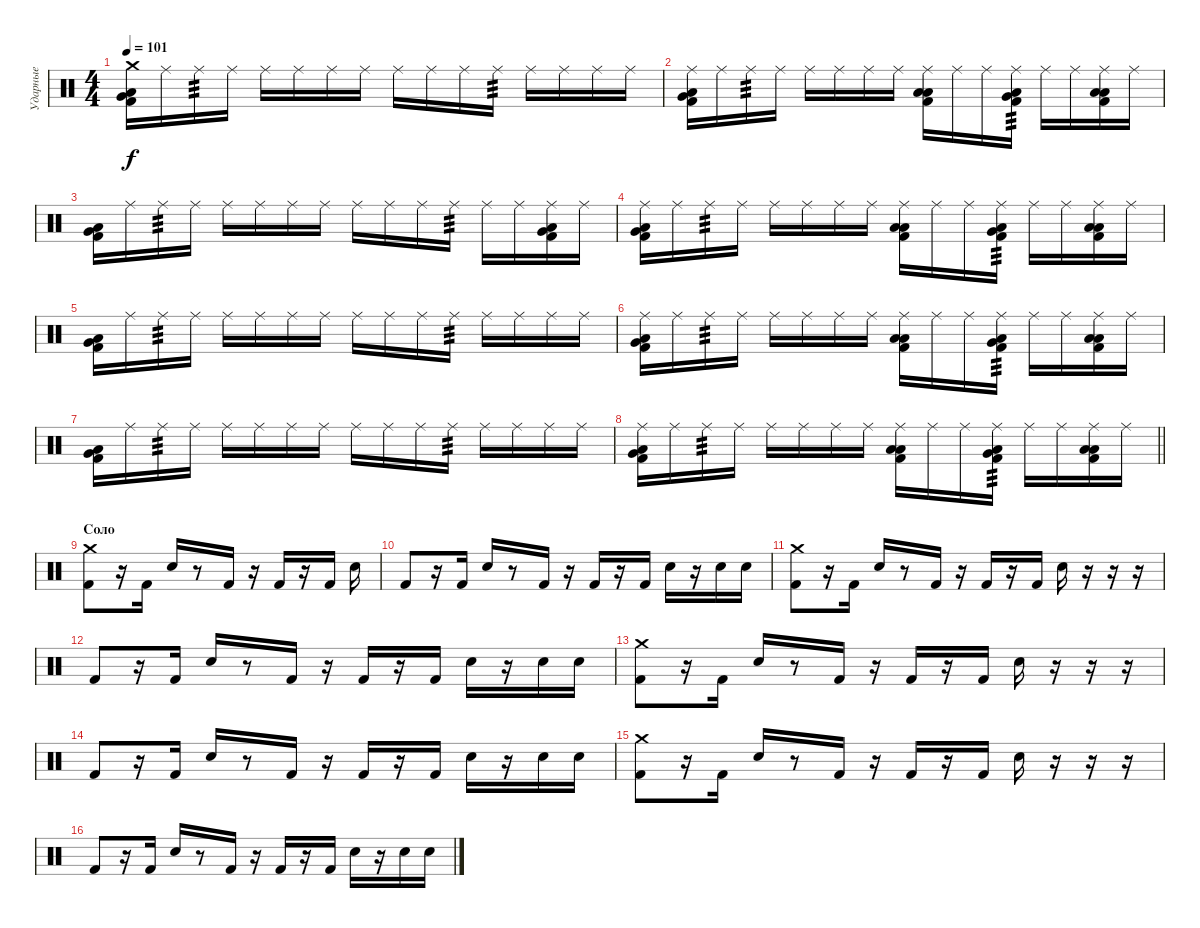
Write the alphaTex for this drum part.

\track ("Ударные" "Ударные") {instrument percussion}
\staff {score}
\articulation defaults
\ts (4 4)
\tempo 101
\clef neutral
\ks c
("Crash medium (hit)" "Very Low Tom (hit)" "Low Floor Tom (hit)" "Kick (hit) 2").16{dy f} "Ride (middle)".16 "Ride (middle)".16{tp 3} "Ride (middle)".16 "Ride (middle)".16 "Ride (middle)".16 "Ride (middle)".16 "Ride (middle)".16 "Ride (middle)".16 "Ride (middle)".16 "Ride (middle)".16 "Ride (middle)".16{tp 3} "Ride (middle)".16 "Ride (middle)".16 "Ride (middle)".16 "Ride (middle)".16 |
("Ride (middle)" "Very Low Tom (hit)" "Low Floor Tom (hit)" "Kick (hit) 2").16 "Ride (middle)".16 "Ride (middle)".16{tp 3} "Ride (middle)".16 "Ride (middle)".16 "Ride (middle)".16 "Ride (middle)".16 "Ride (middle)".16 ("Ride (middle)" "Low Tom (hit)" "Low Floor Tom (hit)" "Kick (hit) 2").16 "Ride (middle)".16 "Ride (middle)".16 ("Ride (middle)" "Very Low Tom (hit)" "Low Floor Tom (hit)" "Kick (hit) 2").16{tp 3} "Ride (middle)".16 "Ride (middle)".16 ("Ride (middle)" "Low Tom (hit)" "Low Floor Tom (hit)" "Kick (hit) 2").16 "Ride (middle)".16 |
("Very Low Tom (hit)" "Low Floor Tom (hit)" "Kick (hit) 2").16 "Ride (middle)".16 "Ride (middle)".16{tp 3} "Ride (middle)".16 "Ride (middle)".16 "Ride (middle)".16 "Ride (middle)".16 "Ride (middle)".16 "Ride (middle)".16 "Ride (middle)".16 "Ride (middle)".16 "Ride (middle)".16{tp 3} "Ride (middle)".16 "Ride (middle)".16 ("Ride (middle)" "Very Low Tom (hit)" "Low Floor Tom (hit)" "Kick (hit) 2").16 "Ride (middle)".16 |
("Ride (middle)" "Very Low Tom (hit)" "Low Floor Tom (hit)" "Kick (hit) 2").16 "Ride (middle)".16 "Ride (middle)".16{tp 3} "Ride (middle)".16 "Ride (middle)".16 "Ride (middle)".16 "Ride (middle)".16 "Ride (middle)".16 ("Ride (middle)" "Low Tom (hit)" "Low Floor Tom (hit)" "Kick (hit) 2").16 "Ride (middle)".16 "Ride (middle)".16 ("Ride (middle)" "Very Low Tom (hit)" "Low Floor Tom (hit)" "Kick (hit) 2").16{tp 3} "Ride (middle)".16 "Ride (middle)".16 ("Ride (middle)" "Low Tom (hit)" "Low Floor Tom (hit)" "Kick (hit) 2").16 "Ride (middle)".16 |
("Very Low Tom (hit)" "Low Floor Tom (hit)" "Kick (hit) 2").16 "Ride (middle)".16 "Ride (middle)".16{tp 3} "Ride (middle)".16 "Ride (middle)".16 "Ride (middle)".16 "Ride (middle)".16 "Ride (middle)".16 "Ride (middle)".16 "Ride (middle)".16 "Ride (middle)".16 "Ride (middle)".16{tp 3} "Ride (middle)".16 "Ride (middle)".16 "Ride (middle)".16 "Ride (middle)".16 |
("Ride (middle)" "Very Low Tom (hit)" "Low Floor Tom (hit)" "Kick (hit) 2").16 "Ride (middle)".16 "Ride (middle)".16{tp 3} "Ride (middle)".16 "Ride (middle)".16 "Ride (middle)".16 "Ride (middle)".16 "Ride (middle)".16 ("Ride (middle)" "Low Tom (hit)" "Low Floor Tom (hit)" "Kick (hit) 2").16 "Ride (middle)".16 "Ride (middle)".16 ("Ride (middle)" "Very Low Tom (hit)" "Low Floor Tom (hit)" "Kick (hit) 2").16{tp 3} "Ride (middle)".16 "Ride (middle)".16 ("Ride (middle)" "Low Tom (hit)" "Low Floor Tom (hit)" "Kick (hit) 2").16 "Ride (middle)".16 |
("Very Low Tom (hit)" "Low Floor Tom (hit)" "Kick (hit) 2").16 "Ride (middle)".16 "Ride (middle)".16{tp 3} "Ride (middle)".16 "Ride (middle)".16 "Ride (middle)".16 "Ride (middle)".16 "Ride (middle)".16 "Ride (middle)".16 "Ride (middle)".16 "Ride (middle)".16 "Ride (middle)".16{tp 3} "Ride (middle)".16 "Ride (middle)".16 "Ride (middle)".16 "Ride (middle)".16 |
\barLineRight lightlight
("Ride (middle)" "Very Low Tom (hit)" "Low Floor Tom (hit)" "Kick (hit) 2").16 "Ride (middle)".16 "Ride (middle)".16{tp 3} "Ride (middle)".16 "Ride (middle)".16 "Ride (middle)".16 "Ride (middle)".16 "Ride (middle)".16 ("Ride (middle)" "Low Tom (hit)" "Low Floor Tom (hit)" "Kick (hit) 2").16 "Ride (middle)".16 "Ride (middle)".16 ("Ride (middle)" "Very Low Tom (hit)" "Low Floor Tom (hit)" "Kick (hit) 2").16{tp 3} "Ride (middle)".16 "Ride (middle)".16 ("Ride (middle)" "Low Tom (hit)" "Low Floor Tom (hit)" "Kick (hit) 2").16 "Ride (middle)".16 |
\section ("" "Соло")
("Crash medium (hit)" "Kick (hit) 2").8 r.16 "Kick (hit) 2".16 "Snare (hit) 2".16 r.8 "Kick (hit) 2".16 r.16 "Kick (hit) 2".16 r.16 "Kick (hit) 2".16 "Snare (hit) 2".16 |
"Kick (hit) 2".8 r.16 "Kick (hit) 2".16 "Snare (hit) 2".16 r.8 "Kick (hit) 2".16 r.16 "Kick (hit) 2".16 r.16 "Kick (hit) 2".16 "Snare (hit) 2".16 r.16 "Snare (hit) 2".16 "Snare (hit) 2".16 |
("Crash medium (hit)" "Kick (hit) 2").8 r.16 "Kick (hit) 2".16 "Snare (hit) 2".16 r.8 "Kick (hit) 2".16 r.16 "Kick (hit) 2".16 r.16 "Kick (hit) 2".16 "Snare (hit) 2".16 r.16 r.16 r.16 |
"Kick (hit) 2".8 r.16 "Kick (hit) 2".16 "Snare (hit) 2".16 r.8 "Kick (hit) 2".16 r.16 "Kick (hit) 2".16 r.16 "Kick (hit) 2".16 "Snare (hit) 2".16 r.16 "Snare (hit) 2".16 "Snare (hit) 2".16 |
("Crash medium (hit)" "Kick (hit) 2").8 r.16 "Kick (hit) 2".16 "Snare (hit) 2".16 r.8 "Kick (hit) 2".16 r.16 "Kick (hit) 2".16 r.16 "Kick (hit) 2".16 "Snare (hit) 2".16 r.16 r.16 r.16 |
"Kick (hit) 2".8 r.16 "Kick (hit) 2".16 "Snare (hit) 2".16 r.8 "Kick (hit) 2".16 r.16 "Kick (hit) 2".16 r.16 "Kick (hit) 2".16 "Snare (hit) 2".16 r.16 "Snare (hit) 2".16 "Snare (hit) 2".16 |
("Crash medium (hit)" "Kick (hit) 2").8 r.16 "Kick (hit) 2".16 "Snare (hit) 2".16 r.8 "Kick (hit) 2".16 r.16 "Kick (hit) 2".16 r.16 "Kick (hit) 2".16 "Snare (hit) 2".16 r.16 r.16 r.16 |
"Kick (hit) 2".8 r.16 "Kick (hit) 2".16 "Snare (hit) 2".16 r.8 "Kick (hit) 2".16 r.16 "Kick (hit) 2".16 r.16 "Kick (hit) 2".16 "Snare (hit) 2".16 r.16 "Snare (hit) 2".16 "Snare (hit) 2".16
